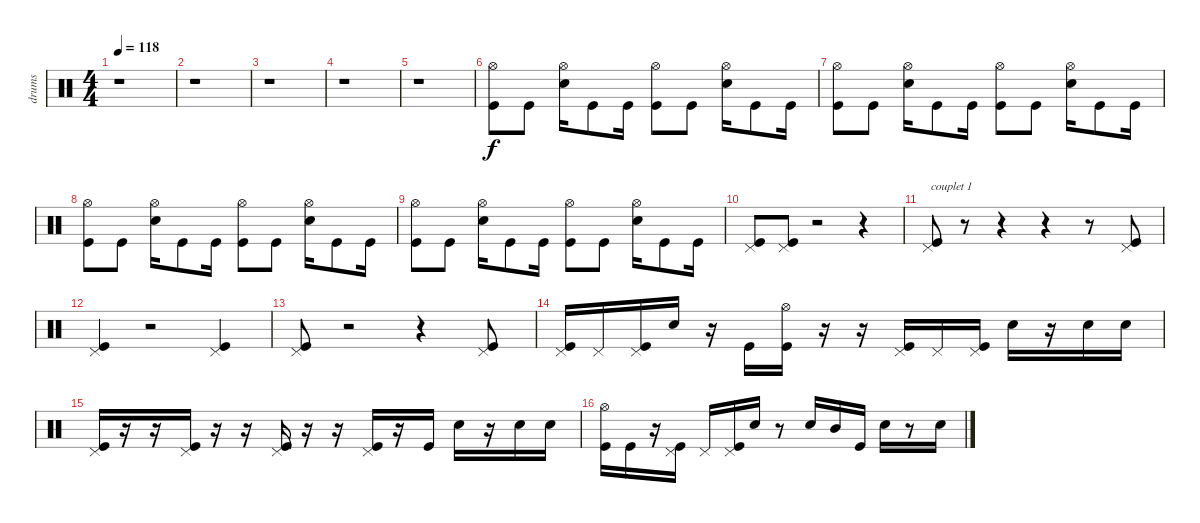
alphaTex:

\track ("drums" "drums") {instrument percussion}
\staff {score}
\articulation defaults
\ts (4 4)
\tempo 118
\clef neutral
\ks c
r.1{dy f} |
r.1 |
r.1 |
r.1 |
r.1 |
("Hi-Hat (open)" "Kick (hit)").8 "Kick (hit)".8 ("Hi-Hat (open)" "Electric Snare (hit)").16 "Kick (hit)".8 "Kick (hit)".16 ("Hi-Hat (open)" "Kick (hit)").8 "Kick (hit)".8 ("Hi-Hat (open)" "Electric Snare (hit)").16 "Kick (hit)".8 "Kick (hit)".16 |
("Hi-Hat (open)" "Kick (hit)").8 "Kick (hit)".8 ("Hi-Hat (open)" "Electric Snare (hit)").16 "Kick (hit)".8 "Kick (hit)".16 ("Hi-Hat (open)" "Kick (hit)").8 "Kick (hit)".8 ("Hi-Hat (open)" "Electric Snare (hit)").16 "Kick (hit)".8 "Kick (hit)".16 |
("Hi-Hat (open)" "Kick (hit)").8 "Kick (hit)".8 ("Hi-Hat (open)" "Electric Snare (hit)").16 "Kick (hit)".8 "Kick (hit)".16 ("Hi-Hat (open)" "Kick (hit)").8 "Kick (hit)".8 ("Hi-Hat (open)" "Electric Snare (hit)").16 "Kick (hit)".8 "Kick (hit)".16 |
("Hi-Hat (open)" "Kick (hit)").8 "Kick (hit)".8 ("Hi-Hat (open)" "Electric Snare (hit)").16 "Kick (hit)".8 "Kick (hit)".16 ("Hi-Hat (open)" "Kick (hit)").8 "Kick (hit)".8 ("Hi-Hat (open)" "Electric Snare (hit)").16 "Kick (hit)".8 "Kick (hit)".16 |
("Pedal Hi-Hat (hit)" "Kick (hit)").8 ("Pedal Hi-Hat (hit)" "Kick (hit)").8 r.2 r.4 |
("Pedal Hi-Hat (hit)" "Kick (hit)").8{txt " couplet 1"} r.8 r.4 r.4 r.8 ("Pedal Hi-Hat (hit)" "Kick (hit)").8 |
("Pedal Hi-Hat (hit)" "Kick (hit)").4 r.2 ("Pedal Hi-Hat (hit)" "Kick (hit)").4 |
("Pedal Hi-Hat (hit)" "Kick (hit)").8 r.2 r.4 ("Pedal Hi-Hat (hit)" "Kick (hit)").8 |
("Pedal Hi-Hat (hit)" "Kick (hit)").16 "Pedal Hi-Hat (hit)".16 ("Pedal Hi-Hat (hit)" "Kick (hit)").16 "Electric Snare (hit)".16 r.16 "Kick (hit)".16 ("Hi-Hat (open)" "Kick (hit)").16 r.16 r.16 ("Pedal Hi-Hat (hit)" "Kick (hit)").16 "Pedal Hi-Hat (hit)".16 ("Pedal Hi-Hat (hit)" "Kick (hit)").16 "Electric Snare (hit)".16 r.16 "Electric Snare (hit)".16 "Electric Snare (hit)".16 |
("Pedal Hi-Hat (hit)" "Kick (hit)").16 r.16 r.16 ("Pedal Hi-Hat (hit)" "Kick (hit)").16 r.16 r.16 ("Pedal Hi-Hat (hit)" "Kick (hit)").16 r.16 r.16 ("Pedal Hi-Hat (hit)" "Kick (hit)").16 r.16 "Kick (hit)".16 "Electric Snare (hit)".16 r.16 "Electric Snare (hit)".16 "Electric Snare (hit)".16 |
("Hi-Hat (open)" "Kick (hit)").16 "Kick (hit)".16 r.16 ("Pedal Hi-Hat (hit)" "Kick (hit)").16 "Pedal Hi-Hat (hit)".16 ("Pedal Hi-Hat (hit)" "Kick (hit)").16 "Electric Snare (hit)".16 r.8 "Electric Snare (hit)".16 "Mid Tom (hit)".16 "Kick (hit)".16 "Electric Snare (hit)".16 r.8 "Electric Snare (hit)".16
